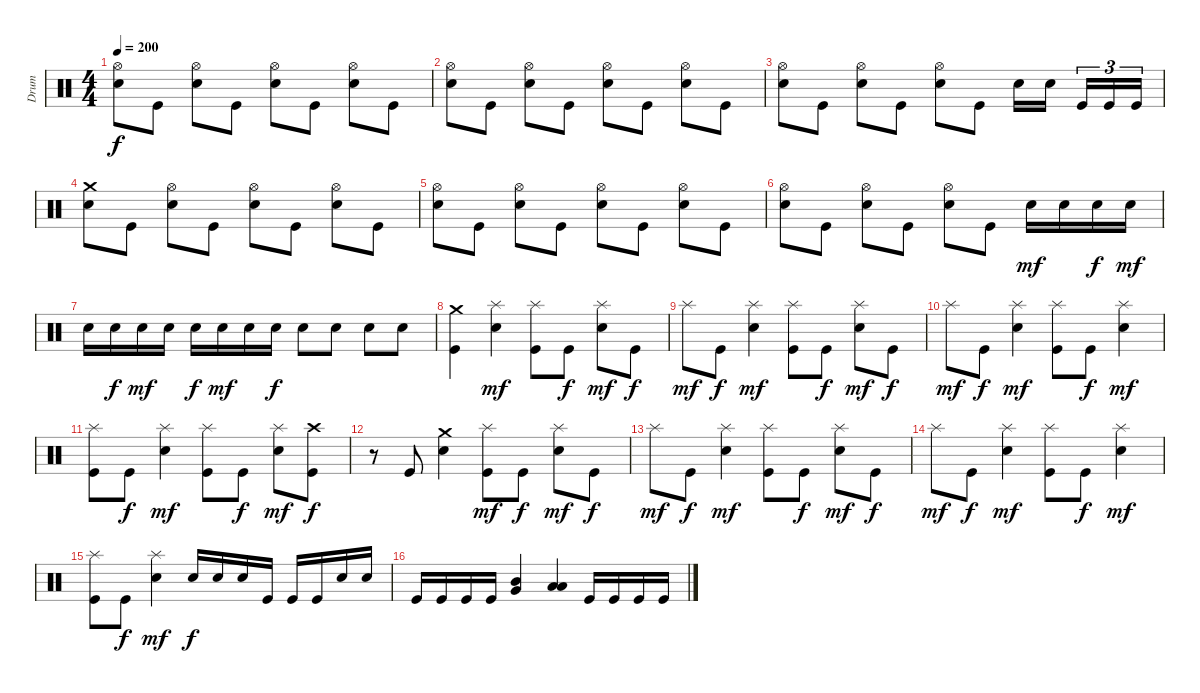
\track ("Drum" "Drum") {instrument percussion}
\staff {score}
\articulation defaults
\ts (4 4)
\tempo 200
\clef neutral
\ks c
("Electric Snare (hit)" "Hi-Hat (open)").8{dy f} "Kick (hit)".8 ("Electric Snare (hit)" "Hi-Hat (open)").8 "Kick (hit)".8 ("Electric Snare (hit)" "Hi-Hat (open)").8 "Kick (hit)".8 ("Electric Snare (hit)" "Hi-Hat (open)").8 "Kick (hit)".8 |
("Electric Snare (hit)" "Hi-Hat (open)").8 "Kick (hit)".8 ("Electric Snare (hit)" "Hi-Hat (open)").8 "Kick (hit)".8 ("Electric Snare (hit)" "Hi-Hat (open)").8 "Kick (hit)".8 ("Electric Snare (hit)" "Hi-Hat (open)").8 "Kick (hit)".8 |
("Electric Snare (hit)" "Hi-Hat (open)").8 "Kick (hit)".8 ("Electric Snare (hit)" "Hi-Hat (open)").8 "Kick (hit)".8 ("Electric Snare (hit)" "Hi-Hat (open)").8 "Kick (hit)".8 "Electric Snare (hit)".16 "Electric Snare (hit)".16 "Kick (hit)".16{tu (3 2)} "Kick (hit)".16{tu (3 2)} "Kick (hit)".16{tu (3 2)} |
("Electric Snare (hit)" "Crash medium (hit)").8 "Kick (hit)".8 ("Electric Snare (hit)" "Hi-Hat (open)").8 "Kick (hit)".8 ("Electric Snare (hit)" "Hi-Hat (open)").8 "Kick (hit)".8 ("Electric Snare (hit)" "Hi-Hat (open)").8 "Kick (hit)".8 |
("Electric Snare (hit)" "Hi-Hat (open)").8 "Kick (hit)".8 ("Electric Snare (hit)" "Hi-Hat (open)").8 "Kick (hit)".8 ("Electric Snare (hit)" "Hi-Hat (open)").8 "Kick (hit)".8 ("Electric Snare (hit)" "Hi-Hat (open)").8 "Kick (hit)".8 |
("Electric Snare (hit)" "Hi-Hat (open)").8 "Kick (hit)".8 ("Electric Snare (hit)" "Hi-Hat (open)").8 "Kick (hit)".8 ("Electric Snare (hit)" "Hi-Hat (open)").8 "Kick (hit)".8 "Electric Snare (hit)".16{dy mf} "Electric Snare (hit)".16 "Electric Snare (hit)".16{dy f} "Electric Snare (hit)".16{dy mf} |
"Electric Snare (hit)".16 "Electric Snare (hit)".16{dy f} "Electric Snare (hit)".16{dy mf} "Electric Snare (hit)".16 "Electric Snare (hit)".16{dy f} "Electric Snare (hit)".16{dy mf} "Electric Snare (hit)".16 "Electric Snare (hit)".16{dy f} "Electric Snare (hit)".8 "Electric Snare (hit)".8 "Electric Snare (hit)".8 "Electric Snare (hit)".8 |
("Kick (hit)" "Crash medium (hit)").4 ("Electric Snare (hit)" "Splash (hit)").4{dy mf} ("Kick (hit)" "Splash (hit)").8 "Kick (hit)".8{dy f} ("Electric Snare (hit)" "Splash (hit)").8{dy mf} "Kick (hit)".8{dy f} |
"Splash (hit)".8{dy mf} "Kick (hit)".8{dy f} ("Electric Snare (hit)" "Splash (hit)").4{dy mf} ("Kick (hit)" "Splash (hit)").8 "Kick (hit)".8{dy f} ("Electric Snare (hit)" "Splash (hit)").8{dy mf} "Kick (hit)".8{dy f} |
"Splash (hit)".8{dy mf} "Kick (hit)".8{dy f} ("Electric Snare (hit)" "Splash (hit)").4{dy mf} ("Kick (hit)" "Splash (hit)").8 "Kick (hit)".8{dy f} ("Electric Snare (hit)" "Splash (hit)").4{dy mf} |
("Kick (hit)" "Splash (hit)").8 "Kick (hit)".8{dy f} ("Electric Snare (hit)" "Splash (hit)").4{dy mf} ("Kick (hit)" "Splash (hit)").8 "Kick (hit)".8{dy f} ("Electric Snare (hit)" "Splash (hit)").8{dy mf} ("Kick (hit)" "Crash high (hit)").8{dy f} |
r.8 "Kick (hit)".8 ("Electric Snare (hit)" "Crash medium (hit)").4 ("Kick (hit)" "Splash (hit)").8{dy mf} "Kick (hit)".8{dy f} ("Electric Snare (hit)" "Splash (hit)").8{dy mf} "Kick (hit)".8{dy f} |
"Splash (hit)".8{dy mf} "Kick (hit)".8{dy f} ("Electric Snare (hit)" "Splash (hit)").4{dy mf} ("Kick (hit)" "Splash (hit)").8 "Kick (hit)".8{dy f} ("Electric Snare (hit)" "Splash (hit)").8{dy mf} "Kick (hit)".8{dy f} |
"Splash (hit)".8{dy mf} "Kick (hit)".8{dy f} ("Electric Snare (hit)" "Splash (hit)").4{dy mf} ("Kick (hit)" "Splash (hit)").8 "Kick (hit)".8{dy f} ("Electric Snare (hit)" "Splash (hit)").4{dy mf} |
("Kick (hit)" "Splash (hit)").8 "Kick (hit)".8{dy f} ("Electric Snare (hit)" "Splash (hit)").4{dy mf} "Electric Snare (hit)".16{dy f} "Electric Snare (hit)".16 "Electric Snare (hit)".16 "Kick (hit)".16 "Kick (hit)".16 "Kick (hit)".16 "Electric Snare (hit)".16 "Electric Snare (hit)".16 |
"Kick (hit)".16 "Kick (hit)".16 "Kick (hit)".16 "Kick (hit)".16 ("Very Low Tom (hit)" "Mid Tom (hit)").4 ("Low Floor Tom (hit)" "Low Tom (hit)").4 "Kick (hit)".16 "Kick (hit)".16 "Kick (hit)".16 "Kick (hit)".16
